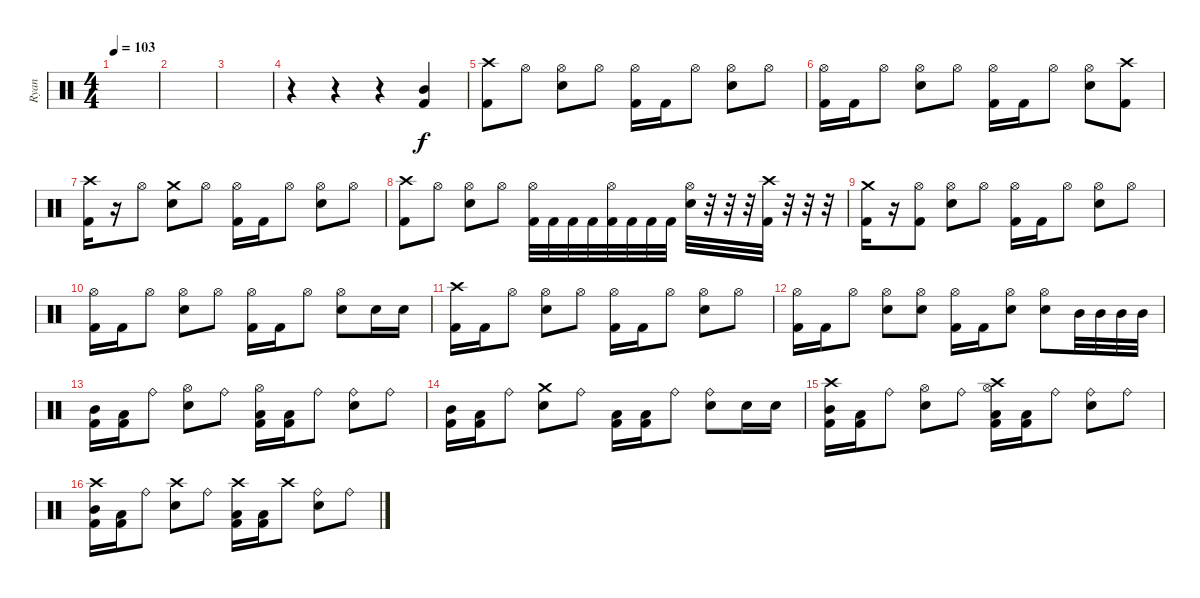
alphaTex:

\track ("Ryan" "Ryan") {instrument percussion}
\staff {score}
\articulation defaults
\ts (4 4)
\tempo 103
\clef neutral
\ks c
|
|
|
r.4 r.4 r.4 ("Mid Tom (hit)" "Kick (hit) 2").4 |
("Crash high (hit)" "Kick (hit) 2").8 "Hi-Hat (open)".8 ("Hi-Hat (open)" "Electric Snare (hit)").8 "Hi-Hat (open)".8 ("Hi-Hat (open)" "Kick (hit) 2").16 "Kick (hit) 2".16 "Hi-Hat (open)".8 ("Hi-Hat (open)" "Electric Snare (hit)").8 "Hi-Hat (open)".8 |
("Hi-Hat (open)" "Kick (hit) 2").16 "Kick (hit) 2".16 "Hi-Hat (open)".8 ("Hi-Hat (open)" "Electric Snare (hit)").8 "Hi-Hat (open)".8 ("Hi-Hat (open)" "Kick (hit) 2").16 "Kick (hit) 2".16 "Hi-Hat (open)".8 ("Hi-Hat (open)" "Electric Snare (hit)").8 ("Crash high (hit)" "Kick (hit) 2").8 |
("Crash high (hit)" "Kick (hit) 2").16 r.16 "Hi-Hat (open)".8 ("Crash medium (hit)" "Electric Snare (hit)").8 "Hi-Hat (open)".8 ("Hi-Hat (open)" "Kick (hit) 2").16 "Kick (hit) 2".16 "Hi-Hat (open)".8 ("Hi-Hat (open)" "Electric Snare (hit)").8 "Hi-Hat (open)".8 |
("Crash high (hit)" "Kick (hit) 2").8 "Hi-Hat (open)".8 ("Hi-Hat (open)" "Electric Snare (hit)").8 "Hi-Hat (open)".8 ("Hi-Hat (open)" "Kick (hit) 2").32 "Kick (hit) 2".32 "Kick (hit) 2".32 "Kick (hit) 2".32 ("Hi-Hat (open)" "Kick (hit) 2").32 "Kick (hit) 2".32 "Kick (hit) 2".32 "Kick (hit) 2".32 ("Hi-Hat (open)" "Electric Snare (hit)").32 r.32 r.32 r.32 ("Crash high (hit)" "Kick (hit) 2").32 r.32 r.32 r.32 |
("Crash medium (hit)" "Kick (hit) 2").16 r.16 ("Hi-Hat (open)" "Kick (hit) 2").8 ("Hi-Hat (open)" "Electric Snare (hit)").8 "Hi-Hat (open)".8 ("Hi-Hat (open)" "Kick (hit) 2").16 "Kick (hit) 2".16 "Hi-Hat (open)".8 ("Hi-Hat (open)" "Electric Snare (hit)").8 "Hi-Hat (open)".8 |
("Hi-Hat (open)" "Kick (hit) 2").16 "Kick (hit) 2".16 "Hi-Hat (open)".8 ("Hi-Hat (open)" "Electric Snare (hit)").8 "Hi-Hat (open)".8 ("Hi-Hat (open)" "Kick (hit) 2").16 "Kick (hit) 2".16 "Hi-Hat (open)".8 ("Hi-Hat (open)" "Electric Snare (hit)").8 "Electric Snare (hit)".16 "Electric Snare (hit)".16 |
("Crash high (hit)" "Kick (hit) 2").16 "Kick (hit) 2".16 "Hi-Hat (open)".8 ("Hi-Hat (open)" "Electric Snare (hit)").8 "Hi-Hat (open)".8 ("Hi-Hat (open)" "Kick (hit) 2").16 "Kick (hit) 2".16 "Hi-Hat (open)".8 ("Hi-Hat (open)" "Electric Snare (hit)").8 "Hi-Hat (open)".8 |
("Hi-Hat (open)" "Kick (hit) 2").16 "Kick (hit) 2".16 "Hi-Hat (open)".8 ("Hi-Hat (open)" "Electric Snare (hit)").8 ("Hi-Hat (open)" "Electric Snare (hit)").8 ("Hi-Hat (open)" "Kick (hit) 2").16 "Kick (hit) 2".16 ("Hi-Hat (open)" "Electric Snare (hit)").8 ("Hi-Hat (open)" "Electric Snare (hit)").8 "Mid Tom (hit)".32 "Mid Tom (hit)".32 "Mid Tom (hit)".32 "Mid Tom (hit)".32 |
("Mid Tom (hit)" "Kick (hit) 2").16 ("Low Tom (hit)" "Kick (hit) 2").16 "Ride (bell)".8 ("Hi-Hat (open)" "Electric Snare (hit)").8 "Ride (bell)".8 ("Hi-Hat (open)" "Low Tom (hit)" "Kick (hit) 2").16 ("Low Tom (hit)" "Kick (hit) 2").16 "Ride (bell)".8 ("Ride (bell)" "Electric Snare (hit)").8 "Ride (bell)".8 |
("Mid Tom (hit)" "Kick (hit) 2").16 ("Low Tom (hit)" "Kick (hit) 2").16 "Ride (bell)".8 ("Crash medium (hit)" "Electric Snare (hit)").8 "Ride (bell)".8 ("Low Tom (hit)" "Kick (hit) 2").16 ("Low Tom (hit)" "Kick (hit) 2").16 "Ride (bell)".8 ("Ride (bell)" "Electric Snare (hit)").8 "Electric Snare (hit)".16 "Electric Snare (hit)".16 |
("Crash high (hit)" "Mid Tom (hit)" "Kick (hit) 2").16 ("Low Tom (hit)" "Kick (hit) 2").16 "Ride (bell)".8 ("Hi-Hat (open)" "Electric Snare (hit)").8 "Ride (bell)".8 ("Crash high (hit)" "Hi-Hat (open)" "Low Tom (hit)" "Kick (hit) 2").16 ("Low Tom (hit)" "Kick (hit) 2").16 "Ride (bell)".8 ("Ride (bell)" "Electric Snare (hit)").8 "Ride (bell)".8 |
("Crash high (hit)" "Mid Tom (hit)" "Kick (hit) 2").16 ("Low Tom (hit)" "Kick (hit) 2").16 "Ride (bell)".8 ("Crash high (hit)" "Electric Snare (hit)").8 "Ride (bell)".8 ("Crash high (hit)" "Low Tom (hit)" "Kick (hit) 2").16 ("Low Tom (hit)" "Kick (hit) 2").16 "Crash high (hit)".8 ("Ride (bell)" "Electric Snare (hit)").8 "Ride (bell)".8
